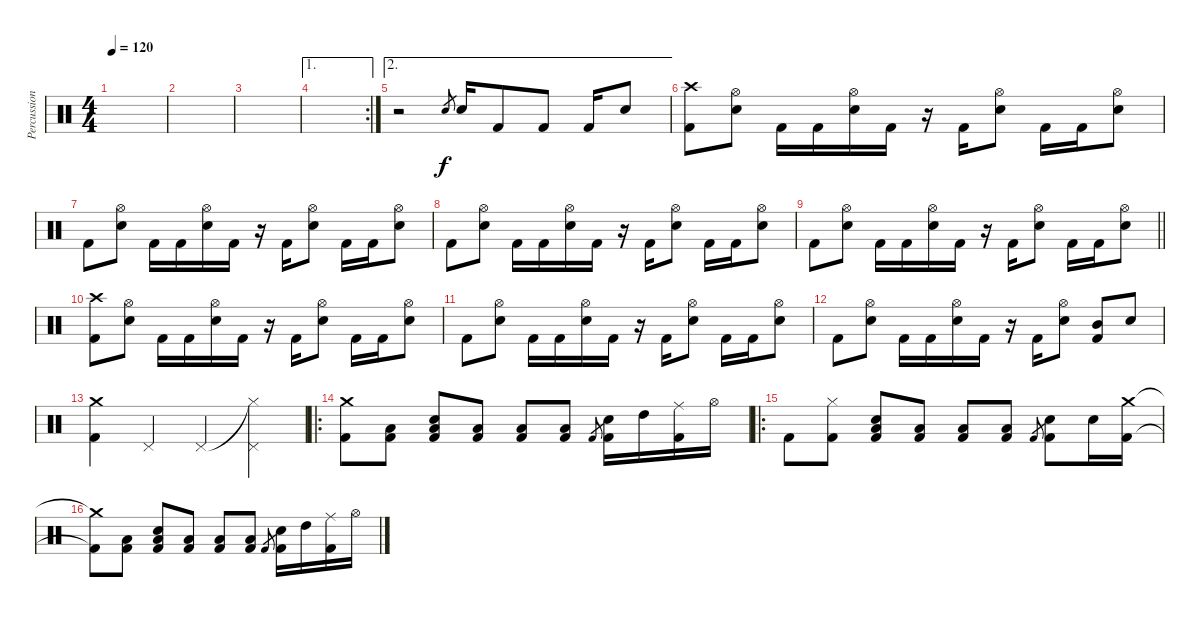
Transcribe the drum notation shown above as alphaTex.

\track ("Percussion" "Percussion") {instrument percussion}
\staff {score}
\articulation defaults
\ts (4 4)
\tempo 120
\clef neutral
\ks c
|
|
|
\ae 1
\rc 2
|
\ae 2
r.2 "Electric Snare (hit)".8{gr} "Electric Snare (hit)".16 "Kick (hit) 2".8 "Kick (hit) 2".8 "Kick (hit) 2".16 "Electric Snare (hit)".8 |
("Crash high (hit)" "Kick (hit) 2").8 ("Hi-Hat (open)" "Electric Snare (hit)").8 "Kick (hit) 2".16 "Kick (hit) 2".16 ("Hi-Hat (open)" "Electric Snare (hit)").16 "Kick (hit) 2".16 r.16 "Kick (hit) 2".16 ("Hi-Hat (open)" "Electric Snare (hit)").8 "Kick (hit) 2".16 "Kick (hit) 2".16 ("Hi-Hat (open)" "Electric Snare (hit)").8 |
"Kick (hit) 2".8 ("Hi-Hat (open)" "Electric Snare (hit)").8 "Kick (hit) 2".16 "Kick (hit) 2".16 ("Hi-Hat (open)" "Electric Snare (hit)").16 "Kick (hit) 2".16 r.16 "Kick (hit) 2".16 ("Hi-Hat (open)" "Electric Snare (hit)").8 "Kick (hit) 2".16 "Kick (hit) 2".16 ("Hi-Hat (open)" "Electric Snare (hit)").8 |
"Kick (hit) 2".8 ("Hi-Hat (open)" "Electric Snare (hit)").8 "Kick (hit) 2".16 "Kick (hit) 2".16 ("Hi-Hat (open)" "Electric Snare (hit)").16 "Kick (hit) 2".16 r.16 "Kick (hit) 2".16 ("Hi-Hat (open)" "Electric Snare (hit)").8 "Kick (hit) 2".16 "Kick (hit) 2".16 ("Hi-Hat (open)" "Electric Snare (hit)").8 |
\barLineRight lightlight "Kick (hit) 2".8
("Hi-Hat (open)" "Electric Snare (hit)").8 "Kick (hit) 2".16 "Kick (hit) 2".16 ("Hi-Hat (open)" "Electric Snare (hit)").16 "Kick (hit) 2".16 r.16 "Kick (hit) 2".16 ("Hi-Hat (open)" "Electric Snare (hit)").8 "Kick (hit) 2".16 "Kick (hit) 2".16 ("Hi-Hat (open)" "Electric Snare (hit)").8 |
("Crash high (hit)" "Kick (hit) 2").8 ("Hi-Hat (open)" "Electric Snare (hit)").8 "Kick (hit) 2".16 "Kick (hit) 2".16 ("Hi-Hat (open)" "Electric Snare (hit)").16 "Kick (hit) 2".16 r.16 "Kick (hit) 2".16 ("Hi-Hat (open)" "Electric Snare (hit)").8 "Kick (hit) 2".16 "Kick (hit) 2".16 ("Hi-Hat (open)" "Electric Snare (hit)").8 |
"Kick (hit) 2".8 ("Hi-Hat (open)" "Electric Snare (hit)").8 "Kick (hit) 2".16 "Kick (hit) 2".16 ("Hi-Hat (open)" "Electric Snare (hit)").16 "Kick (hit) 2".16 r.16 "Kick (hit) 2".16 ("Hi-Hat (open)" "Electric Snare (hit)").8 "Kick (hit) 2".16 "Kick (hit) 2".16 ("Hi-Hat (open)" "Electric Snare (hit)").8 |
"Kick (hit) 2".8 ("Hi-Hat (open)" "Electric Snare (hit)").8 "Kick (hit) 2".16 "Kick (hit) 2".16 ("Hi-Hat (open)" "Electric Snare (hit)").16 "Kick (hit) 2".16 r.16 "Kick (hit) 2".16 ("Hi-Hat (open)" "Electric Snare (hit)").8 ("Mid Tom (hit)" "Kick (hit) 2").8 "Electric Snare (hit)".8 |
("Crash medium (hit)" "Kick (hit) 2").4 "Pedal Hi-Hat (hit)".4 "Pedal Hi-Hat (hit)".4 ("Hi-Hat (closed)"{t} "Pedal Hi-Hat (hit)").4 |
\ro
("Crash medium (hit)" "Kick (hit) 2").8 ("Low Tom (hit)" "Kick (hit) 2").8 ("Electric Snare (hit)" "Low Tom (hit)" "Kick (hit) 2").8 ("Low Tom (hit)" "Kick (hit) 2").8 ("Low Tom (hit)" "Kick (hit) 2").8 ("Low Tom (hit)" "Kick (hit) 2").8 "Kick (hit) 2".8{gr} ("Electric Snare (hit)" "Kick (hit) 2").16 "High Tom (hit)".16 ("Ride (middle)" "Kick (hit) 2").16 "Hi-Hat (open)".16 |
\ro "Kick (hit) 2".8
("Hi-Hat (closed)" "Kick (hit) 2").8 ("Electric Snare (hit)" "Low Tom (hit)" "Kick (hit) 2").8 ("Low Tom (hit)" "Kick (hit) 2").8 ("Low Tom (hit)" "Kick (hit) 2").8 ("Low Tom (hit)" "Kick (hit) 2").8 "Kick (hit) 2".8{gr} ("Electric Snare (hit)" "Kick (hit) 2").8 "Electric Snare (hit)".16 ("Crash medium (hit)" "Kick (hit) 2").16 |
("Crash medium (hit)"{t} "Kick (hit) 2"{t}).8 ("Low Tom (hit)" "Kick (hit) 2").8 ("Electric Snare (hit)" "Low Tom (hit)" "Kick (hit) 2").8 ("Low Tom (hit)" "Kick (hit) 2").8 ("Low Tom (hit)" "Kick (hit) 2").8 ("Low Tom (hit)" "Kick (hit) 2").8 "Kick (hit) 2".8{gr} ("Electric Snare (hit)" "Kick (hit) 2").16 "High Tom (hit)".16 ("Ride (middle)" "Kick (hit) 2").16 "Hi-Hat (open)".16
